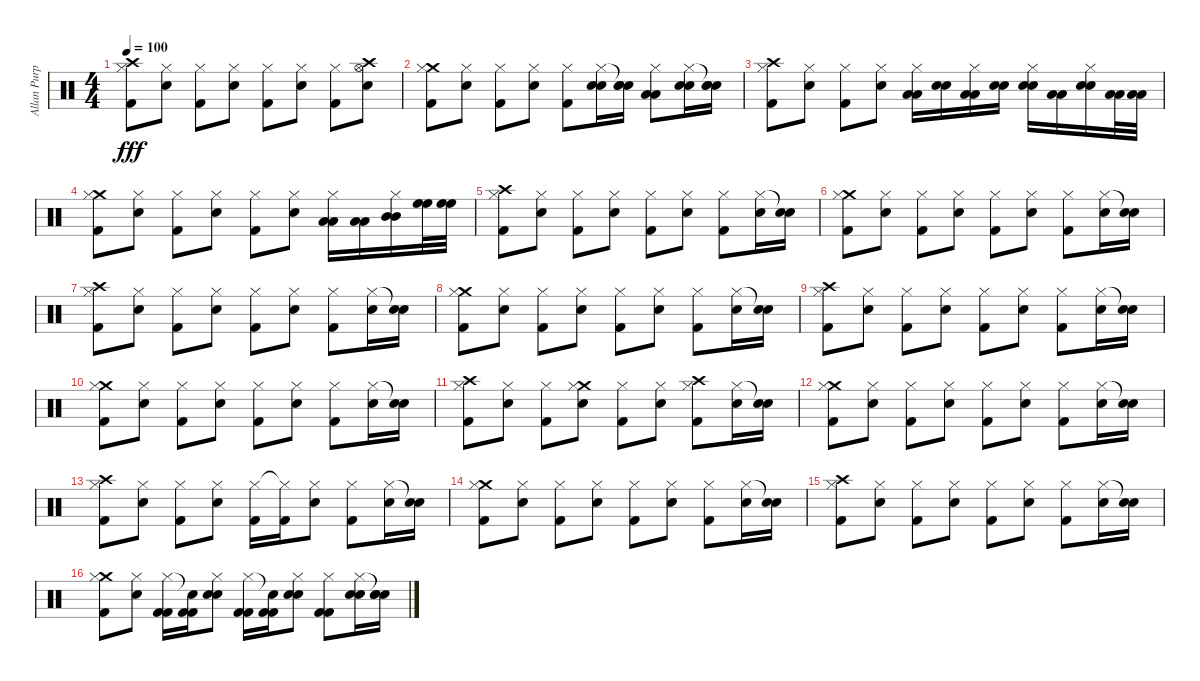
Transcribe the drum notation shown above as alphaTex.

\track ("Allan Purple" "Allan Purp") {instrument percussion}
\staff {score}
\articulation defaults
\ts (4 4)
\tempo 100
\clef neutral
\ks c
("Crash high (hit)" "Hi-Hat (closed)" "Kick (hit) 2").8{dy fff} ("Hi-Hat (closed)" "Electric Snare (hit)").8 ("Hi-Hat (closed)" "Kick (hit) 2").8 ("Hi-Hat (closed)" "Electric Snare (hit)").8 ("Hi-Hat (closed)" "Kick (hit) 2").8 ("Hi-Hat (closed)" "Electric Snare (hit)").8 ("Hi-Hat (closed)" "Kick (hit) 2").8 ("Crash high (hit)" "Hi-Hat (open)" "Electric Snare (hit)").8 |
("Crash medium (hit)" "Hi-Hat (closed)" "Kick (hit) 2").8 ("Hi-Hat (closed)" "Electric Snare (hit)").8 ("Hi-Hat (closed)" "Kick (hit) 2").8 ("Hi-Hat (closed)" "Electric Snare (hit)").8 ("Hi-Hat (closed)" "Kick (hit) 2").8 ("Hi-Hat (closed)" "Electric Snare (hit)" "Electric Snare (hit)").16 ("Snare (hit)"{t} "Electric Snare (hit)" "Electric Snare (hit)").16 ("Hi-Hat (closed)" "Low Tom (hit)" "Low Tom (hit)").8 ("Hi-Hat (closed)" "Electric Snare (hit)" "Electric Snare (hit)").16 ("Snare (hit)"{t} "Electric Snare (hit)" "Electric Snare (hit)").16 |
("Crash high (hit)" "Hi-Hat (closed)" "Kick (hit) 2").8 ("Hi-Hat (closed)" "Electric Snare (hit)").8 ("Hi-Hat (closed)" "Kick (hit) 2").8 ("Hi-Hat (closed)" "Electric Snare (hit)").8 ("Hi-Hat (closed)" "Low Tom (hit)" "Low Tom (hit)").16 ("Electric Snare (hit)" "Electric Snare (hit)").16 ("Hi-Hat (closed)" "Low Tom (hit)" "Low Tom (hit)").16 ("Electric Snare (hit)" "Electric Snare (hit)").16 ("Hi-Hat (closed)" "Electric Snare (hit)" "Electric Snare (hit)").16 ("Low Tom (hit)" "Low Tom (hit)").16 ("Hi-Hat (closed)" "Electric Snare (hit)" "Electric Snare (hit)").16 ("Low Tom (hit)" "Low Tom (hit)").32 ("Low Tom (hit)" "Low Tom (hit)").32 |
("Crash medium (hit)" "Hi-Hat (closed)" "Kick (hit) 2").8 ("Hi-Hat (closed)" "Electric Snare (hit)").8 ("Hi-Hat (closed)" "Kick (hit) 2").8 ("Hi-Hat (closed)" "Electric Snare (hit)").8 ("Hi-Hat (closed)" "Kick (hit) 2").8 ("Hi-Hat (closed)" "Electric Snare (hit)").8 ("Hi-Hat (closed)" "Low Tom (hit)" "Low Tom (hit)").16 ("Low Tom (hit)" "Low Tom (hit)").16 ("Hi-Hat (closed)" "Mid Tom (hit)" "Mid Tom (hit)").16 ("High Floor Tom (hit)" "High Floor Tom (hit)").32 ("High Floor Tom (hit)" "High Floor Tom (hit)").32 |
("Crash high (hit)" "Hi-Hat (closed)" "Kick (hit) 2").8 ("Hi-Hat (closed)" "Electric Snare (hit)").8 ("Hi-Hat (closed)" "Kick (hit) 2").8 ("Hi-Hat (closed)" "Electric Snare (hit)").8 ("Hi-Hat (closed)" "Kick (hit) 2").8 ("Hi-Hat (closed)" "Electric Snare (hit)").8 ("Hi-Hat (closed)" "Kick (hit) 2").8 ("Hi-Hat (closed)" "Electric Snare (hit)").16 ("Snare (hit)"{t} "Electric Snare (hit)").16 |
("Crash medium (hit)" "Hi-Hat (closed)" "Kick (hit) 2").8 ("Hi-Hat (closed)" "Electric Snare (hit)").8 ("Hi-Hat (closed)" "Kick (hit) 2").8 ("Hi-Hat (closed)" "Electric Snare (hit)").8 ("Hi-Hat (closed)" "Kick (hit) 2").8 ("Hi-Hat (closed)" "Electric Snare (hit)").8 ("Hi-Hat (closed)" "Kick (hit) 2").8 ("Hi-Hat (closed)" "Electric Snare (hit)").16 ("Snare (hit)"{t} "Electric Snare (hit)").16 |
("Crash high (hit)" "Hi-Hat (closed)" "Kick (hit) 2").8 ("Hi-Hat (closed)" "Electric Snare (hit)").8 ("Hi-Hat (closed)" "Kick (hit) 2").8 ("Hi-Hat (closed)" "Electric Snare (hit)").8 ("Hi-Hat (closed)" "Kick (hit) 2").8 ("Hi-Hat (closed)" "Electric Snare (hit)").8 ("Hi-Hat (closed)" "Kick (hit) 2").8 ("Hi-Hat (closed)" "Electric Snare (hit)").16 ("Snare (hit)"{t} "Electric Snare (hit)").16 |
("Crash medium (hit)" "Hi-Hat (closed)" "Kick (hit) 2").8 ("Hi-Hat (closed)" "Electric Snare (hit)").8 ("Hi-Hat (closed)" "Kick (hit) 2").8 ("Hi-Hat (closed)" "Electric Snare (hit)").8 ("Hi-Hat (closed)" "Kick (hit) 2").8 ("Hi-Hat (closed)" "Electric Snare (hit)").8 ("Hi-Hat (closed)" "Kick (hit) 2").8 ("Hi-Hat (closed)" "Electric Snare (hit)").16 ("Snare (hit)"{t} "Electric Snare (hit)").16 |
("Crash high (hit)" "Hi-Hat (closed)" "Kick (hit) 2").8 ("Hi-Hat (closed)" "Electric Snare (hit)").8 ("Hi-Hat (closed)" "Kick (hit) 2").8 ("Hi-Hat (closed)" "Electric Snare (hit)").8 ("Hi-Hat (closed)" "Kick (hit) 2").8 ("Hi-Hat (closed)" "Electric Snare (hit)").8 ("Hi-Hat (closed)" "Kick (hit) 2").8 ("Hi-Hat (closed)" "Electric Snare (hit)").16 ("Snare (hit)"{t} "Electric Snare (hit)").16 |
("Crash medium (hit)" "Hi-Hat (closed)" "Kick (hit) 2").8 ("Hi-Hat (closed)" "Electric Snare (hit)").8 ("Hi-Hat (closed)" "Kick (hit) 2").8 ("Hi-Hat (closed)" "Electric Snare (hit)").8 ("Hi-Hat (closed)" "Kick (hit) 2").8 ("Hi-Hat (closed)" "Electric Snare (hit)").8 ("Hi-Hat (closed)" "Kick (hit) 2").8 ("Hi-Hat (closed)" "Electric Snare (hit)").16 ("Snare (hit)"{t} "Electric Snare (hit)").16 |
("Crash high (hit)" "Hi-Hat (closed)" "Kick (hit) 2").8 ("Hi-Hat (closed)" "Electric Snare (hit)").8 ("Hi-Hat (closed)" "Kick (hit) 2").8 ("Crash medium (hit)" "Hi-Hat (closed)" "Electric Snare (hit)").8 ("Hi-Hat (closed)" "Kick (hit) 2").8 ("Hi-Hat (closed)" "Electric Snare (hit)").8 ("Crash high (hit)" "Hi-Hat (closed)" "Kick (hit) 2").8 ("Hi-Hat (closed)" "Electric Snare (hit)").16 ("Snare (hit)"{t} "Electric Snare (hit)").16 |
("Crash medium (hit)" "Hi-Hat (closed)" "Kick (hit) 2").8 ("Hi-Hat (closed)" "Electric Snare (hit)").8 ("Hi-Hat (closed)" "Kick (hit) 2").8 ("Hi-Hat (closed)" "Electric Snare (hit)").8 ("Hi-Hat (closed)" "Kick (hit) 2").8 ("Hi-Hat (closed)" "Electric Snare (hit)").8 ("Hi-Hat (closed)" "Kick (hit) 2").8 ("Hi-Hat (closed)" "Electric Snare (hit)").16 ("Snare (hit)"{t} "Electric Snare (hit)").16 |
("Crash high (hit)" "Hi-Hat (closed)" "Kick (hit) 2").8 ("Hi-Hat (closed)" "Electric Snare (hit)").8 ("Hi-Hat (closed)" "Kick (hit) 2").8 ("Hi-Hat (closed)" "Electric Snare (hit)").8 ("Hi-Hat (closed)" "Kick (hit) 2").16 ("Hi-Hat (closed)"{t} "Kick (hit) 2").16 ("Hi-Hat (closed)" "Electric Snare (hit)").8 ("Hi-Hat (closed)" "Kick (hit) 2").8 ("Hi-Hat (closed)" "Electric Snare (hit)").16 ("Snare (hit)"{t} "Electric Snare (hit)").16 |
("Crash medium (hit)" "Hi-Hat (closed)" "Kick (hit) 2").8 ("Hi-Hat (closed)" "Electric Snare (hit)").8 ("Hi-Hat (closed)" "Kick (hit) 2").8 ("Hi-Hat (closed)" "Electric Snare (hit)").8 ("Hi-Hat (closed)" "Kick (hit) 2").8 ("Hi-Hat (closed)" "Electric Snare (hit)").8 ("Hi-Hat (closed)" "Kick (hit) 2").8 ("Hi-Hat (closed)" "Electric Snare (hit)").16 ("Snare (hit)"{t} "Electric Snare (hit)").16 |
("Crash high (hit)" "Hi-Hat (closed)" "Kick (hit) 2").8 ("Hi-Hat (closed)" "Electric Snare (hit)").8 ("Hi-Hat (closed)" "Kick (hit) 2").8 ("Hi-Hat (closed)" "Electric Snare (hit)").8 ("Hi-Hat (closed)" "Kick (hit) 2").8 ("Hi-Hat (closed)" "Electric Snare (hit)").8 ("Hi-Hat (closed)" "Kick (hit) 2").8 ("Hi-Hat (closed)" "Electric Snare (hit)").16 ("Snare (hit)"{t} "Electric Snare (hit)").16 |
("Crash medium (hit)" "Hi-Hat (closed)" "Kick (hit) 2").8 ("Hi-Hat (closed)" "Electric Snare (hit)").8 ("Hi-Hat (closed)" "Kick (hit) 2" "Kick (hit) 2").16 ("Snare (hit)"{t} "Kick (hit) 2" "Kick (hit) 2").16 ("Hi-Hat (closed)" "Electric Snare (hit)" "Electric Snare (hit)").8 ("Hi-Hat (closed)" "Kick (hit) 2" "Kick (hit) 2").16 ("Snare (hit)"{t} "Kick (hit) 2" "Kick (hit) 2").16 ("Hi-Hat (closed)" "Electric Snare (hit)" "Electric Snare (hit)").8 ("Hi-Hat (closed)" "Kick (hit) 2" "Kick (hit) 2").8 ("Hi-Hat (closed)" "Electric Snare (hit)" "Electric Snare (hit)").16 ("Snare (hit)"{t} "Electric Snare (hit)" "Electric Snare (hit)").16
